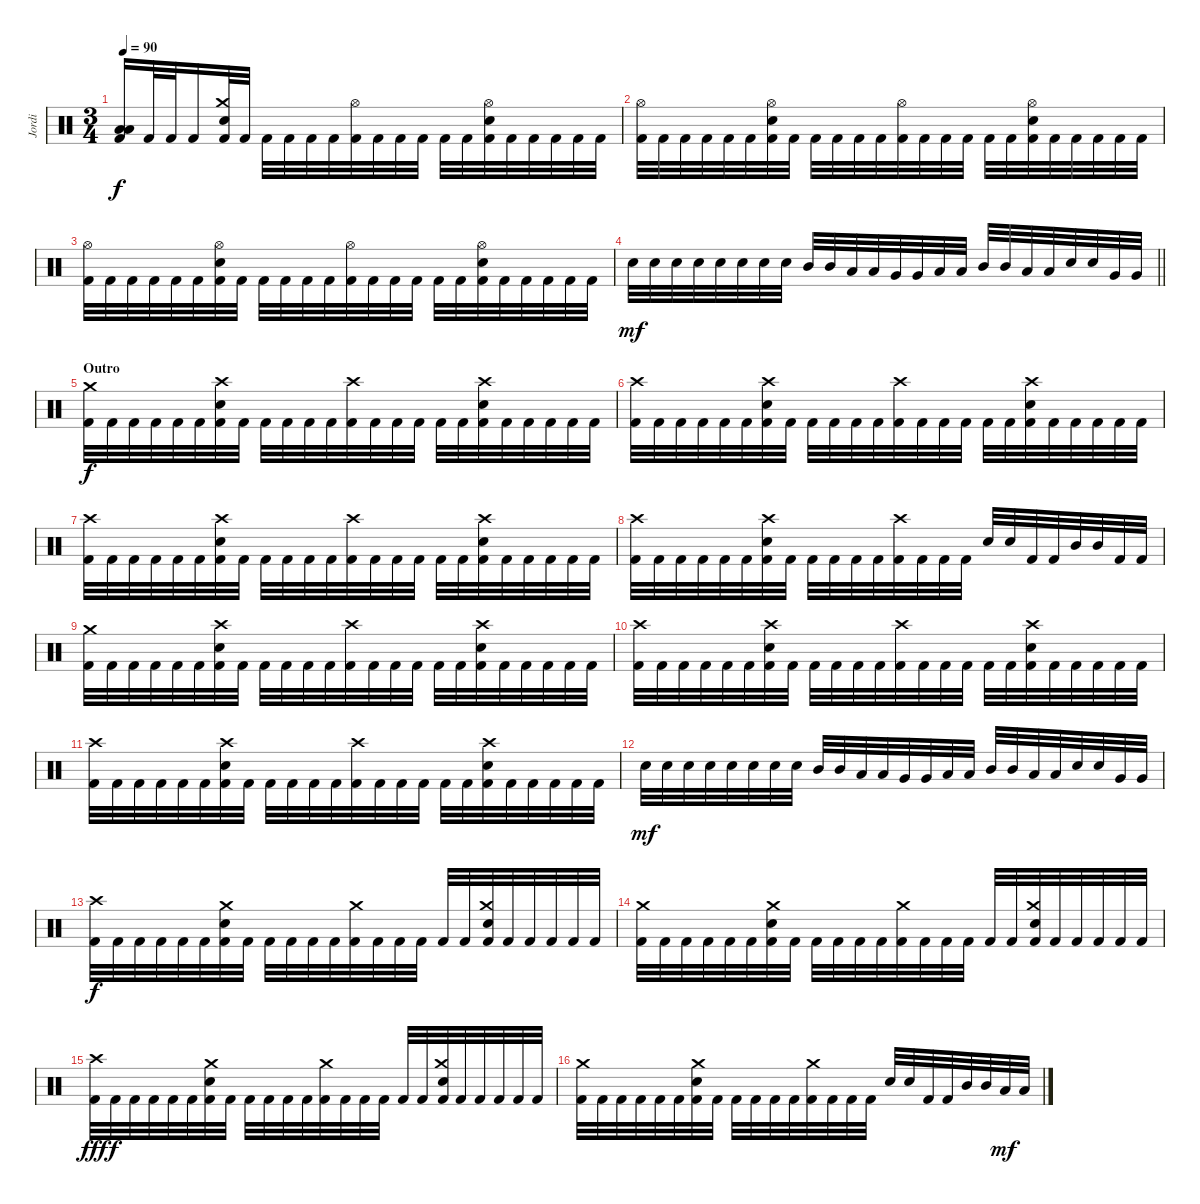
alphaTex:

\track ("Jordi" "Jordi") {instrument percussion}
\staff {score}
\articulation defaults
\ts (3 4)
\tempo 90
\clef neutral
\ks c
("Low Tom (hit)" "Low Tom (hit)" "Kick (hit) 2").16{dy f} "Kick (hit) 2".32 "Kick (hit) 2".32 "Kick (hit) 2".16 ("Crash medium (hit)" "Snare (hit) 2" "Kick (hit) 2").32 "Kick (hit) 2".32 "Kick (hit) 2".32 "Kick (hit) 2".32 "Kick (hit) 2".32 "Kick (hit) 2".32 ("Hi-Hat (open)" "Kick (hit) 2").32 "Kick (hit) 2".32 "Kick (hit) 2".32 "Kick (hit) 2".32 "Kick (hit) 2".32 "Kick (hit) 2".32 ("Hi-Hat (open)" "Snare (hit) 2" "Kick (hit) 2").32 "Kick (hit) 2".32 "Kick (hit) 2".32 "Kick (hit) 2".32 "Kick (hit) 2".32 "Kick (hit) 2".32 |
("Hi-Hat (open)" "Kick (hit) 2").32 "Kick (hit) 2".32 "Kick (hit) 2".32 "Kick (hit) 2".32 "Kick (hit) 2".32 "Kick (hit) 2".32 ("Hi-Hat (open)" "Snare (hit) 2" "Kick (hit) 2").32 "Kick (hit) 2".32 "Kick (hit) 2".32 "Kick (hit) 2".32 "Kick (hit) 2".32 "Kick (hit) 2".32 ("Hi-Hat (open)" "Kick (hit) 2").32 "Kick (hit) 2".32 "Kick (hit) 2".32 "Kick (hit) 2".32 "Kick (hit) 2".32 "Kick (hit) 2".32 ("Hi-Hat (open)" "Snare (hit) 2" "Kick (hit) 2").32 "Kick (hit) 2".32 "Kick (hit) 2".32 "Kick (hit) 2".32 "Kick (hit) 2".32 "Kick (hit) 2".32 |
("Hi-Hat (open)" "Kick (hit) 2").32 "Kick (hit) 2".32 "Kick (hit) 2".32 "Kick (hit) 2".32 "Kick (hit) 2".32 "Kick (hit) 2".32 ("Hi-Hat (open)" "Snare (hit) 2" "Kick (hit) 2").32 "Kick (hit) 2".32 "Kick (hit) 2".32 "Kick (hit) 2".32 "Kick (hit) 2".32 "Kick (hit) 2".32 ("Hi-Hat (open)" "Kick (hit) 2").32 "Kick (hit) 2".32 "Kick (hit) 2".32 "Kick (hit) 2".32 "Kick (hit) 2".32 "Kick (hit) 2".32 ("Hi-Hat (open)" "Snare (hit) 2" "Kick (hit) 2").32 "Kick (hit) 2".32 "Kick (hit) 2".32 "Kick (hit) 2".32 "Kick (hit) 2".32 "Kick (hit) 2".32 |
\barLineRight lightlight "Snare (hit) 2".32{dy mf} "Snare (hit) 2".32 "Snare (hit) 2".32 "Snare (hit) 2".32 "Snare (hit) 2".32 "Snare (hit) 2".32 "Snare (hit) 2".32 "Snare (hit) 2".32 "Mid Tom (hit)".32 "Mid Tom (hit)".32 "Low Tom (hit)".32 "Low Tom (hit)".32 "Very Low Tom (hit)".32 "Very Low Tom (hit)".32 "Low Floor Tom (hit)".32 "Low Floor Tom (hit)".32 "Mid Tom (hit)".32 "Mid Tom (hit)".32 "Low Tom (hit)".32 "Low Tom (hit)".32 "Snare (hit) 2".32 "Snare (hit) 2".32 "Very Low Tom (hit)".32 "Very Low Tom (hit)".32
|
\section ("" "Outro")
("Crash medium (hit)" "Kick (hit) 2").32{dy f} "Kick (hit) 2".32 "Kick (hit) 2".32 "Kick (hit) 2".32 "Kick (hit) 2".32 "Kick (hit) 2".32 ("Crash high (hit)" "Snare (hit) 2" "Kick (hit) 2").32 "Kick (hit) 2".32 "Kick (hit) 2".32 "Kick (hit) 2".32 "Kick (hit) 2".32 "Kick (hit) 2".32 ("Crash high (hit)" "Kick (hit) 2").32 "Kick (hit) 2".32 "Kick (hit) 2".32 "Kick (hit) 2".32 "Kick (hit) 2".32 "Kick (hit) 2".32 ("Crash high (hit)" "Snare (hit) 2" "Kick (hit) 2").32 "Kick (hit) 2".32 "Kick (hit) 2".32 "Kick (hit) 2".32 "Kick (hit) 2".32 "Kick (hit) 2".32 |
("Crash high (hit)" "Kick (hit) 2").32 "Kick (hit) 2".32 "Kick (hit) 2".32 "Kick (hit) 2".32 "Kick (hit) 2".32 "Kick (hit) 2".32 ("Crash high (hit)" "Snare (hit) 2" "Kick (hit) 2").32 "Kick (hit) 2".32 "Kick (hit) 2".32 "Kick (hit) 2".32 "Kick (hit) 2".32 "Kick (hit) 2".32 ("Crash high (hit)" "Kick (hit) 2").32 "Kick (hit) 2".32 "Kick (hit) 2".32 "Kick (hit) 2".32 "Kick (hit) 2".32 "Kick (hit) 2".32 ("Crash high (hit)" "Snare (hit) 2" "Kick (hit) 2").32 "Kick (hit) 2".32 "Kick (hit) 2".32 "Kick (hit) 2".32 "Kick (hit) 2".32 "Kick (hit) 2".32 |
("Crash high (hit)" "Kick (hit) 2").32 "Kick (hit) 2".32 "Kick (hit) 2".32 "Kick (hit) 2".32 "Kick (hit) 2".32 "Kick (hit) 2".32 ("Crash high (hit)" "Snare (hit) 2" "Kick (hit) 2").32 "Kick (hit) 2".32 "Kick (hit) 2".32 "Kick (hit) 2".32 "Kick (hit) 2".32 "Kick (hit) 2".32 ("Crash high (hit)" "Kick (hit) 2").32 "Kick (hit) 2".32 "Kick (hit) 2".32 "Kick (hit) 2".32 "Kick (hit) 2".32 "Kick (hit) 2".32 ("Crash high (hit)" "Snare (hit) 2" "Kick (hit) 2").32 "Kick (hit) 2".32 "Kick (hit) 2".32 "Kick (hit) 2".32 "Kick (hit) 2".32 "Kick (hit) 2".32 |
("Crash high (hit)" "Kick (hit) 2").32 "Kick (hit) 2".32 "Kick (hit) 2".32 "Kick (hit) 2".32 "Kick (hit) 2".32 "Kick (hit) 2".32 ("Crash high (hit)" "Snare (hit) 2" "Kick (hit) 2").32 "Kick (hit) 2".32 "Kick (hit) 2".32 "Kick (hit) 2".32 "Kick (hit) 2".32 "Kick (hit) 2".32 ("Crash high (hit)" "Kick (hit) 2").32 "Kick (hit) 2".32 "Kick (hit) 2".32 "Kick (hit) 2".32 "Snare (hit) 2".32 "Snare (hit) 2".32 "Kick (hit) 2".32 "Kick (hit) 2".32 "Mid Tom (hit)".32 "Mid Tom (hit)".32 "Kick (hit) 2".32 "Kick (hit) 2".32 |
("Crash medium (hit)" "Kick (hit) 2").32 "Kick (hit) 2".32 "Kick (hit) 2".32 "Kick (hit) 2".32 "Kick (hit) 2".32 "Kick (hit) 2".32 ("Crash high (hit)" "Snare (hit) 2" "Kick (hit) 2").32 "Kick (hit) 2".32 "Kick (hit) 2".32 "Kick (hit) 2".32 "Kick (hit) 2".32 "Kick (hit) 2".32 ("Crash high (hit)" "Kick (hit) 2").32 "Kick (hit) 2".32 "Kick (hit) 2".32 "Kick (hit) 2".32 "Kick (hit) 2".32 "Kick (hit) 2".32 ("Crash high (hit)" "Snare (hit) 2" "Kick (hit) 2").32 "Kick (hit) 2".32 "Kick (hit) 2".32 "Kick (hit) 2".32 "Kick (hit) 2".32 "Kick (hit) 2".32 |
("Crash high (hit)" "Kick (hit) 2").32 "Kick (hit) 2".32 "Kick (hit) 2".32 "Kick (hit) 2".32 "Kick (hit) 2".32 "Kick (hit) 2".32 ("Crash high (hit)" "Snare (hit) 2" "Kick (hit) 2").32 "Kick (hit) 2".32 "Kick (hit) 2".32 "Kick (hit) 2".32 "Kick (hit) 2".32 "Kick (hit) 2".32 ("Crash high (hit)" "Kick (hit) 2").32 "Kick (hit) 2".32 "Kick (hit) 2".32 "Kick (hit) 2".32 "Kick (hit) 2".32 "Kick (hit) 2".32 ("Crash high (hit)" "Snare (hit) 2" "Kick (hit) 2").32 "Kick (hit) 2".32 "Kick (hit) 2".32 "Kick (hit) 2".32 "Kick (hit) 2".32 "Kick (hit) 2".32 |
("Crash high (hit)" "Kick (hit) 2").32 "Kick (hit) 2".32 "Kick (hit) 2".32 "Kick (hit) 2".32 "Kick (hit) 2".32 "Kick (hit) 2".32 ("Crash high (hit)" "Snare (hit) 2" "Kick (hit) 2").32 "Kick (hit) 2".32 "Kick (hit) 2".32 "Kick (hit) 2".32 "Kick (hit) 2".32 "Kick (hit) 2".32 ("Crash high (hit)" "Kick (hit) 2").32 "Kick (hit) 2".32 "Kick (hit) 2".32 "Kick (hit) 2".32 "Kick (hit) 2".32 "Kick (hit) 2".32 ("Crash high (hit)" "Snare (hit) 2" "Kick (hit) 2").32 "Kick (hit) 2".32 "Kick (hit) 2".32 "Kick (hit) 2".32 "Kick (hit) 2".32 "Kick (hit) 2".32 |
"Snare (hit) 2".32{dy mf} "Snare (hit) 2".32 "Snare (hit) 2".32 "Snare (hit) 2".32 "Snare (hit) 2".32 "Snare (hit) 2".32 "Snare (hit) 2".32 "Snare (hit) 2".32 "Mid Tom (hit)".32 "Mid Tom (hit)".32 "Low Tom (hit)".32 "Low Tom (hit)".32 "Very Low Tom (hit)".32 "Very Low Tom (hit)".32 "Low Floor Tom (hit)".32 "Low Floor Tom (hit)".32 "Mid Tom (hit)".32 "Mid Tom (hit)".32 "Low Tom (hit)".32 "Low Tom (hit)".32 "Snare (hit) 2".32 "Snare (hit) 2".32 "Very Low Tom (hit)".32 "Very Low Tom (hit)".32 |
("Crash high (hit)" "Kick (hit) 2").32{dy f} "Kick (hit) 2".32 "Kick (hit) 2".32 "Kick (hit) 2".32 "Kick (hit) 2".32 "Kick (hit) 2".32 ("Crash medium (hit)" "Snare (hit) 2" "Kick (hit) 2").32 "Kick (hit) 2".32 "Kick (hit) 2".32 "Kick (hit) 2".32 "Kick (hit) 2".32 "Kick (hit) 2".32 ("Crash medium (hit)" "Kick (hit) 2").32 "Kick (hit) 2".32 "Kick (hit) 2".32 "Kick (hit) 2".32 "Kick (hit) 2".32 "Kick (hit) 2".32 ("Crash medium (hit)" "Snare (hit) 2" "Kick (hit) 2").32 "Kick (hit) 2".32 "Kick (hit) 2".32 "Kick (hit) 2".32 "Kick (hit) 2".32 "Kick (hit) 2".32 |
("Crash medium (hit)" "Kick (hit) 2").32 "Kick (hit) 2".32 "Kick (hit) 2".32 "Kick (hit) 2".32 "Kick (hit) 2".32 "Kick (hit) 2".32 ("Crash medium (hit)" "Snare (hit) 2" "Kick (hit) 2").32 "Kick (hit) 2".32 "Kick (hit) 2".32 "Kick (hit) 2".32 "Kick (hit) 2".32 "Kick (hit) 2".32 ("Crash medium (hit)" "Kick (hit) 2").32 "Kick (hit) 2".32 "Kick (hit) 2".32 "Kick (hit) 2".32 "Kick (hit) 2".32 "Kick (hit) 2".32 ("Crash medium (hit)" "Snare (hit) 2" "Kick (hit) 2").32 "Kick (hit) 2".32 "Kick (hit) 2".32 "Kick (hit) 2".32 "Kick (hit) 2".32 "Kick (hit) 2".32 |
("Crash high (hit)" "Kick (hit) 2").32{dy fff} "Kick (hit) 2".32{dy f} "Kick (hit) 2".32 "Kick (hit) 2".32 "Kick (hit) 2".32 "Kick (hit) 2".32 ("Crash medium (hit)" "Snare (hit) 2" "Kick (hit) 2").32 "Kick (hit) 2".32 "Kick (hit) 2".32 "Kick (hit) 2".32 "Kick (hit) 2".32 "Kick (hit) 2".32 ("Crash medium (hit)" "Kick (hit) 2").32 "Kick (hit) 2".32 "Kick (hit) 2".32 "Kick (hit) 2".32 "Kick (hit) 2".32 "Kick (hit) 2".32 ("Crash medium (hit)" "Snare (hit) 2" "Kick (hit) 2").32 "Kick (hit) 2".32 "Kick (hit) 2".32 "Kick (hit) 2".32 "Kick (hit) 2".32 "Kick (hit) 2".32 |
("Crash medium (hit)" "Kick (hit) 2").32 "Kick (hit) 2".32 "Kick (hit) 2".32 "Kick (hit) 2".32 "Kick (hit) 2".32 "Kick (hit) 2".32 ("Crash medium (hit)" "Snare (hit) 2" "Kick (hit) 2").32 "Kick (hit) 2".32 "Kick (hit) 2".32 "Kick (hit) 2".32 "Kick (hit) 2".32 "Kick (hit) 2".32 ("Crash medium (hit)" "Kick (hit) 2").32 "Kick (hit) 2".32 "Kick (hit) 2".32 "Kick (hit) 2".32 "Snare (hit) 2".32 "Snare (hit) 2".32 "Kick (hit) 2".32 "Kick (hit) 2".32 "Mid Tom (hit)".32 "Mid Tom (hit)".32 "Low Tom (hit)".32{dy mf} "Low Tom (hit)".32
